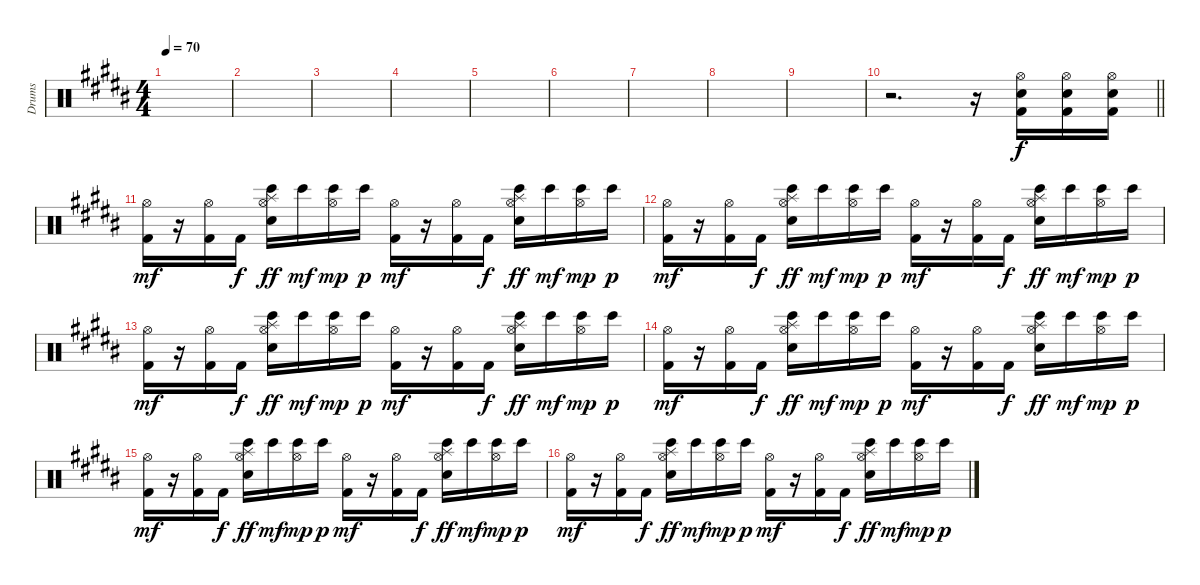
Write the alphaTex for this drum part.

\track ("Drums" "Drums") {instrument percussion}
\staff {score}
\articulation defaults
\ts (4 4)
\tempo 70
\clef neutral
\ks b
|
|
|
|
|
|
|
|
|
\barLineRight lightlight
r.2{d} r.16 ("Hi-Hat (open)" "Snare (hit) 2" "Kick (hit) 2").16 ("Hi-Hat (open)" "Snare (hit) 2" "Kick (hit) 2").16 ("Hi-Hat (open)" "Snare (hit) 2" "Kick (hit) 2").16 |
("Hi-Hat (open)" "Kick (hit) 2").16{dy mf} r.16 ("Hi-Hat (open)" "Kick (hit) 2").16 "Kick (hit) 2".16{dy f} ("Hi-Hat (open)" "Splash (hit)" "Snare (hit) 2" "Bongo High (hit)").16{dy ff} "Bongo High (hit)".16{dy mf} ("Hi-Hat (open)" "Bongo High (hit)").16{dy mp} "Bongo High (hit)".16{dy p} ("Hi-Hat (open)" "Kick (hit) 2").16{dy mf} r.16 ("Hi-Hat (open)" "Kick (hit) 2").16 "Kick (hit) 2".16{dy f} ("Hi-Hat (open)" "Splash (hit)" "Snare (hit) 2" "Bongo High (hit)").16{dy ff} "Bongo High (hit)".16{dy mf} ("Hi-Hat (open)" "Bongo High (hit)").16{dy mp} "Bongo High (hit)".16{dy p} |
("Hi-Hat (open)" "Kick (hit) 2").16{dy mf} r.16 ("Hi-Hat (open)" "Kick (hit) 2").16 "Kick (hit) 2".16{dy f} ("Hi-Hat (open)" "Splash (hit)" "Snare (hit) 2" "Bongo High (hit)").16{dy ff} "Bongo High (hit)".16{dy mf} ("Hi-Hat (open)" "Bongo High (hit)").16{dy mp} "Bongo High (hit)".16{dy p} ("Hi-Hat (open)" "Kick (hit) 2").16{dy mf} r.16 ("Hi-Hat (open)" "Kick (hit) 2").16 "Kick (hit) 2".16{dy f} ("Hi-Hat (open)" "Splash (hit)" "Snare (hit) 2" "Bongo High (hit)").16{dy ff} "Bongo High (hit)".16{dy mf} ("Hi-Hat (open)" "Bongo High (hit)").16{dy mp} "Bongo High (hit)".16{dy p} |
("Hi-Hat (open)" "Kick (hit) 2").16{dy mf} r.16 ("Hi-Hat (open)" "Kick (hit) 2").16 "Kick (hit) 2".16{dy f} ("Hi-Hat (open)" "Splash (hit)" "Snare (hit) 2" "Bongo High (hit)").16{dy ff} "Bongo High (hit)".16{dy mf} ("Hi-Hat (open)" "Bongo High (hit)").16{dy mp} "Bongo High (hit)".16{dy p} ("Hi-Hat (open)" "Kick (hit) 2").16{dy mf} r.16 ("Hi-Hat (open)" "Kick (hit) 2").16 "Kick (hit) 2".16{dy f} ("Hi-Hat (open)" "Splash (hit)" "Snare (hit) 2" "Bongo High (hit)").16{dy ff} "Bongo High (hit)".16{dy mf} ("Hi-Hat (open)" "Bongo High (hit)").16{dy mp} "Bongo High (hit)".16{dy p} |
("Hi-Hat (open)" "Kick (hit) 2").16{dy mf} r.16 ("Hi-Hat (open)" "Kick (hit) 2").16 "Kick (hit) 2".16{dy f} ("Hi-Hat (open)" "Splash (hit)" "Snare (hit) 2" "Bongo High (hit)").16{dy ff} "Bongo High (hit)".16{dy mf} ("Hi-Hat (open)" "Bongo High (hit)").16{dy mp} "Bongo High (hit)".16{dy p} ("Hi-Hat (open)" "Kick (hit) 2").16{dy mf} r.16 ("Hi-Hat (open)" "Kick (hit) 2").16 "Kick (hit) 2".16{dy f} ("Hi-Hat (open)" "Splash (hit)" "Snare (hit) 2" "Bongo High (hit)").16{dy ff} "Bongo High (hit)".16{dy mf} ("Hi-Hat (open)" "Bongo High (hit)").16{dy mp} "Bongo High (hit)".16{dy p} |
("Hi-Hat (open)" "Kick (hit) 2").16{dy mf} r.16 ("Hi-Hat (open)" "Kick (hit) 2").16 "Kick (hit) 2".16{dy f} ("Hi-Hat (open)" "Splash (hit)" "Snare (hit) 2" "Bongo High (hit)").16{dy ff} "Bongo High (hit)".16{dy mf} ("Hi-Hat (open)" "Bongo High (hit)").16{dy mp} "Bongo High (hit)".16{dy p} ("Hi-Hat (open)" "Kick (hit) 2").16{dy mf} r.16 ("Hi-Hat (open)" "Kick (hit) 2").16 "Kick (hit) 2".16{dy f} ("Hi-Hat (open)" "Splash (hit)" "Snare (hit) 2" "Bongo High (hit)").16{dy ff} "Bongo High (hit)".16{dy mf} ("Hi-Hat (open)" "Bongo High (hit)").16{dy mp} "Bongo High (hit)".16{dy p} |
("Hi-Hat (open)" "Kick (hit) 2").16{dy mf} r.16 ("Hi-Hat (open)" "Kick (hit) 2").16 "Kick (hit) 2".16{dy f} ("Hi-Hat (open)" "Splash (hit)" "Snare (hit) 2" "Bongo High (hit)").16{dy ff} "Bongo High (hit)".16{dy mf} ("Hi-Hat (open)" "Bongo High (hit)").16{dy mp} "Bongo High (hit)".16{dy p} ("Hi-Hat (open)" "Kick (hit) 2").16{dy mf} r.16 ("Hi-Hat (open)" "Kick (hit) 2").16 "Kick (hit) 2".16{dy f} ("Hi-Hat (open)" "Splash (hit)" "Snare (hit) 2" "Bongo High (hit)").16{dy ff} "Bongo High (hit)".16{dy mf} ("Hi-Hat (open)" "Bongo High (hit)").16{dy mp} "Bongo High (hit)".16{dy p}
